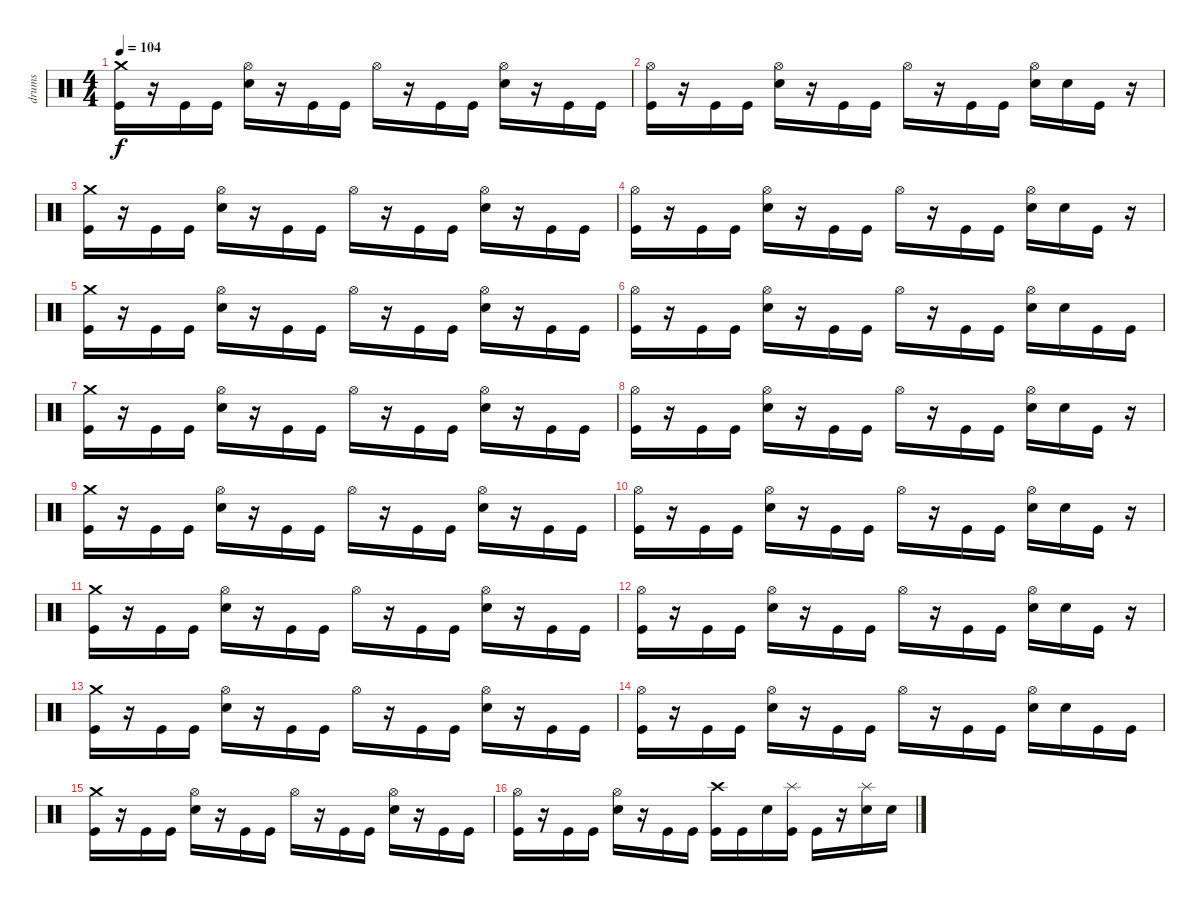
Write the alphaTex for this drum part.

\track ("drums" "drums") {instrument percussion}
\staff {score}
\articulation defaults
\ts (4 4)
\tempo 104
\clef neutral
\ks c
("Crash medium (hit)" "Kick (hit)").16{dy f} r.16 "Kick (hit)".16 "Kick (hit)".16 ("Hi-Hat (open)" "Electric Snare (hit)").16 r.16 "Kick (hit)".16 "Kick (hit)".16 "Hi-Hat (open)".16 r.16 "Kick (hit)".16 "Kick (hit)".16 ("Hi-Hat (open)" "Electric Snare (hit)").16 r.16 "Kick (hit)".16 "Kick (hit)".16 |
("Hi-Hat (open)" "Kick (hit)").16 r.16 "Kick (hit)".16 "Kick (hit)".16 ("Hi-Hat (open)" "Electric Snare (hit)").16 r.16 "Kick (hit)".16 "Kick (hit)".16 "Hi-Hat (open)".16 r.16 "Kick (hit)".16 "Kick (hit)".16 ("Hi-Hat (open)" "Electric Snare (hit)").16 "Electric Snare (hit)".16 "Kick (hit)".16 r.16 |
("Crash medium (hit)" "Kick (hit)").16 r.16 "Kick (hit)".16 "Kick (hit)".16 ("Hi-Hat (open)" "Electric Snare (hit)").16 r.16 "Kick (hit)".16 "Kick (hit)".16 "Hi-Hat (open)".16 r.16 "Kick (hit)".16 "Kick (hit)".16 ("Hi-Hat (open)" "Electric Snare (hit)").16 r.16 "Kick (hit)".16 "Kick (hit)".16 |
("Hi-Hat (open)" "Kick (hit)").16 r.16 "Kick (hit)".16 "Kick (hit)".16 ("Hi-Hat (open)" "Electric Snare (hit)").16 r.16 "Kick (hit)".16 "Kick (hit)".16 "Hi-Hat (open)".16 r.16 "Kick (hit)".16 "Kick (hit)".16 ("Hi-Hat (open)" "Electric Snare (hit)").16 "Electric Snare (hit)".16 "Kick (hit)".16 r.16 |
("Crash medium (hit)" "Kick (hit)").16 r.16 "Kick (hit)".16 "Kick (hit)".16 ("Hi-Hat (open)" "Electric Snare (hit)").16 r.16 "Kick (hit)".16 "Kick (hit)".16 "Hi-Hat (open)".16 r.16 "Kick (hit)".16 "Kick (hit)".16 ("Hi-Hat (open)" "Electric Snare (hit)").16 r.16 "Kick (hit)".16 "Kick (hit)".16 |
("Hi-Hat (open)" "Kick (hit)").16 r.16 "Kick (hit)".16 "Kick (hit)".16 ("Hi-Hat (open)" "Electric Snare (hit)").16 r.16 "Kick (hit)".16 "Kick (hit)".16 "Hi-Hat (open)".16 r.16 "Kick (hit)".16 "Kick (hit)".16 ("Hi-Hat (open)" "Electric Snare (hit)").16 "Electric Snare (hit)".16 "Kick (hit)".16 "Kick (hit)".16 |
("Crash medium (hit)" "Kick (hit)").16 r.16 "Kick (hit)".16 "Kick (hit)".16 ("Hi-Hat (open)" "Electric Snare (hit)").16 r.16 "Kick (hit)".16 "Kick (hit)".16 "Hi-Hat (open)".16 r.16 "Kick (hit)".16 "Kick (hit)".16 ("Hi-Hat (open)" "Electric Snare (hit)").16 r.16 "Kick (hit)".16 "Kick (hit)".16 |
("Hi-Hat (open)" "Kick (hit)").16 r.16 "Kick (hit)".16 "Kick (hit)".16 ("Hi-Hat (open)" "Electric Snare (hit)").16 r.16 "Kick (hit)".16 "Kick (hit)".16 "Hi-Hat (open)".16 r.16 "Kick (hit)".16 "Kick (hit)".16 ("Hi-Hat (open)" "Electric Snare (hit)").16 "Electric Snare (hit)".16 "Kick (hit)".16 r.16 |
("Crash medium (hit)" "Kick (hit)").16 r.16 "Kick (hit)".16 "Kick (hit)".16 ("Hi-Hat (open)" "Electric Snare (hit)").16 r.16 "Kick (hit)".16 "Kick (hit)".16 "Hi-Hat (open)".16 r.16 "Kick (hit)".16 "Kick (hit)".16 ("Hi-Hat (open)" "Electric Snare (hit)").16 r.16 "Kick (hit)".16 "Kick (hit)".16 |
("Hi-Hat (open)" "Kick (hit)").16 r.16 "Kick (hit)".16 "Kick (hit)".16 ("Hi-Hat (open)" "Electric Snare (hit)").16 r.16 "Kick (hit)".16 "Kick (hit)".16 "Hi-Hat (open)".16 r.16 "Kick (hit)".16 "Kick (hit)".16 ("Hi-Hat (open)" "Electric Snare (hit)").16 "Electric Snare (hit)".16 "Kick (hit)".16 r.16 |
("Crash medium (hit)" "Kick (hit)").16 r.16 "Kick (hit)".16 "Kick (hit)".16 ("Hi-Hat (open)" "Electric Snare (hit)").16 r.16 "Kick (hit)".16 "Kick (hit)".16 "Hi-Hat (open)".16 r.16 "Kick (hit)".16 "Kick (hit)".16 ("Hi-Hat (open)" "Electric Snare (hit)").16 r.16 "Kick (hit)".16 "Kick (hit)".16 |
("Hi-Hat (open)" "Kick (hit)").16 r.16 "Kick (hit)".16 "Kick (hit)".16 ("Hi-Hat (open)" "Electric Snare (hit)").16 r.16 "Kick (hit)".16 "Kick (hit)".16 "Hi-Hat (open)".16 r.16 "Kick (hit)".16 "Kick (hit)".16 ("Hi-Hat (open)" "Electric Snare (hit)").16 "Electric Snare (hit)".16 "Kick (hit)".16 r.16 |
("Crash medium (hit)" "Kick (hit)").16 r.16 "Kick (hit)".16 "Kick (hit)".16 ("Hi-Hat (open)" "Electric Snare (hit)").16 r.16 "Kick (hit)".16 "Kick (hit)".16 "Hi-Hat (open)".16 r.16 "Kick (hit)".16 "Kick (hit)".16 ("Hi-Hat (open)" "Electric Snare (hit)").16 r.16 "Kick (hit)".16 "Kick (hit)".16 |
("Hi-Hat (open)" "Kick (hit)").16 r.16 "Kick (hit)".16 "Kick (hit)".16 ("Hi-Hat (open)" "Electric Snare (hit)").16 r.16 "Kick (hit)".16 "Kick (hit)".16 "Hi-Hat (open)".16 r.16 "Kick (hit)".16 "Kick (hit)".16 ("Hi-Hat (open)" "Electric Snare (hit)").16 "Electric Snare (hit)".16 "Kick (hit)".16 "Kick (hit)".16 |
("Crash medium (hit)" "Kick (hit)").16 r.16 "Kick (hit)".16 "Kick (hit)".16 ("Hi-Hat (open)" "Electric Snare (hit)").16 r.16 "Kick (hit)".16 "Kick (hit)".16 "Hi-Hat (open)".16 r.16 "Kick (hit)".16 "Kick (hit)".16 ("Hi-Hat (open)" "Electric Snare (hit)").16 r.16 "Kick (hit)".16 "Kick (hit)".16 |
("Hi-Hat (open)" "Kick (hit)").16 r.16 "Kick (hit)".16 "Kick (hit)".16 ("Hi-Hat (open)" "Electric Snare (hit)").16 r.16 "Kick (hit)".16 "Kick (hit)".16 ("Kick (hit)" "Crash high (hit)").16 "Kick (hit)".16 "Electric Snare (hit)".16 ("Kick (hit)" "Splash (hit)").16 "Kick (hit)".16 r.16 ("Splash (hit)" "Electric Snare (hit)").16 "Electric Snare (hit)".16
